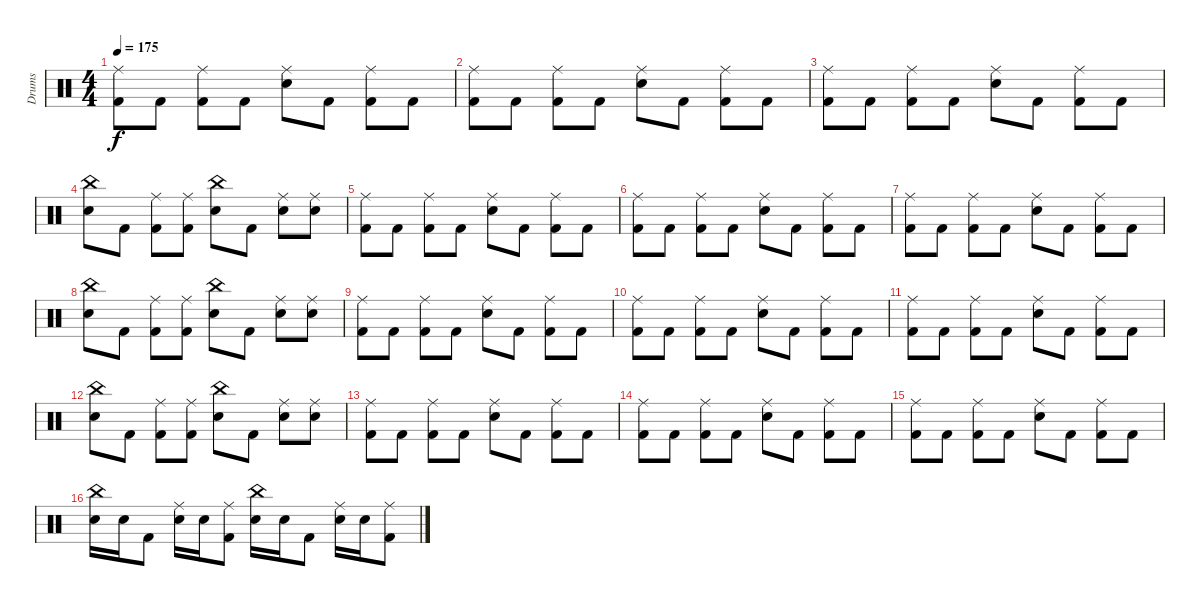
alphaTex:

\track ("Drums" "Drums") {instrument percussion}
\staff {score}
\articulation defaults
\ts (4 4)
\tempo 175
\clef neutral
\ks c
("Ride (middle)" "Kick (hit) 2").8{dy f} "Kick (hit) 2".8 ("Ride (middle)" "Kick (hit) 2").8 "Kick (hit) 2".8 ("Ride (middle)" "Electric Snare (hit)").8 "Kick (hit) 2".8 ("Ride (middle)" "Kick (hit) 2").8 "Kick (hit) 2".8 |
("Ride (middle)" "Kick (hit) 2").8 "Kick (hit) 2".8 ("Ride (middle)" "Kick (hit) 2").8 "Kick (hit) 2".8 ("Ride (middle)" "Electric Snare (hit)").8 "Kick (hit) 2".8 ("Ride (middle)" "Kick (hit) 2").8 "Kick (hit) 2".8 |
("Ride (middle)" "Kick (hit) 2").8 "Kick (hit) 2".8 ("Ride (middle)" "Kick (hit) 2").8 "Kick (hit) 2".8 ("Ride (middle)" "Electric Snare (hit)").8 "Kick (hit) 2".8 ("Ride (middle)" "Kick (hit) 2").8 "Kick (hit) 2".8 |
("China (hit)" "Electric Snare (hit)").8 "Kick (hit) 2".8 ("Ride (middle)" "Kick (hit) 2").8 ("Ride (middle)" "Kick (hit) 2").8 ("China (hit)" "Electric Snare (hit)").8 "Kick (hit) 2".8 ("Ride (middle)" "Electric Snare (hit)").8 ("Ride (middle)" "Electric Snare (hit)").8 |
("Ride (middle)" "Kick (hit) 2").8 "Kick (hit) 2".8 ("Ride (middle)" "Kick (hit) 2").8 "Kick (hit) 2".8 ("Ride (middle)" "Electric Snare (hit)").8 "Kick (hit) 2".8 ("Ride (middle)" "Kick (hit) 2").8 "Kick (hit) 2".8 |
("Ride (middle)" "Kick (hit) 2").8 "Kick (hit) 2".8 ("Ride (middle)" "Kick (hit) 2").8 "Kick (hit) 2".8 ("Ride (middle)" "Electric Snare (hit)").8 "Kick (hit) 2".8 ("Ride (middle)" "Kick (hit) 2").8 "Kick (hit) 2".8 |
("Ride (middle)" "Kick (hit) 2").8 "Kick (hit) 2".8 ("Ride (middle)" "Kick (hit) 2").8 "Kick (hit) 2".8 ("Ride (middle)" "Electric Snare (hit)").8 "Kick (hit) 2".8 ("Ride (middle)" "Kick (hit) 2").8 "Kick (hit) 2".8 |
("China (hit)" "Electric Snare (hit)").8 "Kick (hit) 2".8 ("Ride (middle)" "Kick (hit) 2").8 ("Ride (middle)" "Kick (hit) 2").8 ("China (hit)" "Electric Snare (hit)").8 "Kick (hit) 2".8 ("Ride (middle)" "Electric Snare (hit)").8 ("Ride (middle)" "Electric Snare (hit)").8 |
("Ride (middle)" "Kick (hit) 2").8 "Kick (hit) 2".8 ("Ride (middle)" "Kick (hit) 2").8 "Kick (hit) 2".8 ("Ride (middle)" "Electric Snare (hit)").8 "Kick (hit) 2".8 ("Ride (middle)" "Kick (hit) 2").8 "Kick (hit) 2".8 |
("Ride (middle)" "Kick (hit) 2").8 "Kick (hit) 2".8 ("Ride (middle)" "Kick (hit) 2").8 "Kick (hit) 2".8 ("Ride (middle)" "Electric Snare (hit)").8 "Kick (hit) 2".8 ("Ride (middle)" "Kick (hit) 2").8 "Kick (hit) 2".8 |
("Ride (middle)" "Kick (hit) 2").8 "Kick (hit) 2".8 ("Ride (middle)" "Kick (hit) 2").8 "Kick (hit) 2".8 ("Ride (middle)" "Electric Snare (hit)").8 "Kick (hit) 2".8 ("Ride (middle)" "Kick (hit) 2").8 "Kick (hit) 2".8 |
("China (hit)" "Electric Snare (hit)").8 "Kick (hit) 2".8 ("Ride (middle)" "Kick (hit) 2").8 ("Ride (middle)" "Kick (hit) 2").8 ("China (hit)" "Electric Snare (hit)").8 "Kick (hit) 2".8 ("Ride (middle)" "Electric Snare (hit)").8 ("Ride (middle)" "Electric Snare (hit)").8 |
("Ride (middle)" "Kick (hit) 2").8 "Kick (hit) 2".8 ("Ride (middle)" "Kick (hit) 2").8 "Kick (hit) 2".8 ("Ride (middle)" "Electric Snare (hit)").8 "Kick (hit) 2".8 ("Ride (middle)" "Kick (hit) 2").8 "Kick (hit) 2".8 |
("Ride (middle)" "Kick (hit) 2").8 "Kick (hit) 2".8 ("Ride (middle)" "Kick (hit) 2").8 "Kick (hit) 2".8 ("Ride (middle)" "Electric Snare (hit)").8 "Kick (hit) 2".8 ("Ride (middle)" "Kick (hit) 2").8 "Kick (hit) 2".8 |
("Ride (middle)" "Kick (hit) 2").8 "Kick (hit) 2".8 ("Ride (middle)" "Kick (hit) 2").8 "Kick (hit) 2".8 ("Ride (middle)" "Electric Snare (hit)").8 "Kick (hit) 2".8 ("Ride (middle)" "Kick (hit) 2").8 "Kick (hit) 2".8 |
("China (hit)" "Electric Snare (hit)").16 "Electric Snare (hit)".16 "Kick (hit) 2".8 ("Ride (middle)" "Electric Snare (hit)").16 "Electric Snare (hit)".16 ("Ride (middle)" "Kick (hit) 2").8 ("China (hit)" "Electric Snare (hit)").16 "Electric Snare (hit)".16 "Kick (hit) 2".8 ("Ride (middle)" "Electric Snare (hit)").16 "Electric Snare (hit)".16 ("Ride (middle)" "Kick (hit) 2").8
